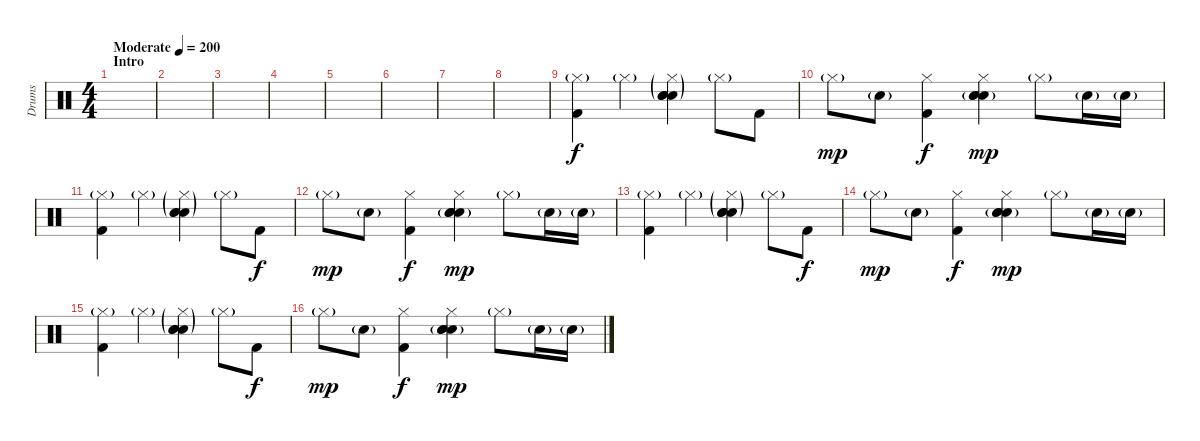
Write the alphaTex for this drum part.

\track ("Drums" "Drums") {instrument percussion}
\staff {score}
\articulation defaults
\ts (4 4)
\section ("" "Intro")
\tempo (200 "Moderate")
\clef neutral
\ks c
|
|
|
|
|
|
|
|
("Hi-Hat (closed)"{g} "Kick (hit) 2").4 "Hi-Hat (closed)"{g}.4 ("Hi-Hat (closed)"{g} "Snare (hit) 2"{g} "Hand Clap (hit)"{g} "Electric Snare (hit)").4 "Hi-Hat (closed)"{g}.8 "Kick (hit) 2".8{dy f} |
"Hi-Hat (closed)"{g}.8{dy mp} "Electric Snare (hit)"{g}.8 ("Hi-Hat (closed)" "Kick (hit) 2").4{dy f} ("Hi-Hat (closed)" "Snare (hit) 2"{g} "Hand Clap (hit)"{g} "Electric Snare (hit)").4{dy mp} "Hi-Hat (closed)"{g}.8 "Electric Snare (hit)"{g}.16 "Electric Snare (hit)"{g}.16 |
("Hi-Hat (closed)"{g} "Kick (hit) 2").4 "Hi-Hat (closed)"{g}.4 ("Hi-Hat (closed)"{g} "Snare (hit) 2"{g} "Hand Clap (hit)"{g} "Electric Snare (hit)").4 "Hi-Hat (closed)"{g}.8 "Kick (hit) 2".8{dy f} |
"Hi-Hat (closed)"{g}.8{dy mp} "Electric Snare (hit)"{g}.8 ("Hi-Hat (closed)" "Kick (hit) 2").4{dy f} ("Hi-Hat (closed)" "Snare (hit) 2"{g} "Hand Clap (hit)"{g} "Electric Snare (hit)").4{dy mp} "Hi-Hat (closed)"{g}.8 "Electric Snare (hit)"{g}.16 "Electric Snare (hit)"{g}.16 |
("Hi-Hat (closed)"{g} "Kick (hit) 2").4 "Hi-Hat (closed)"{g}.4 ("Hi-Hat (closed)"{g} "Snare (hit) 2"{g} "Hand Clap (hit)"{g} "Electric Snare (hit)").4 "Hi-Hat (closed)"{g}.8 "Kick (hit) 2".8{dy f} |
"Hi-Hat (closed)"{g}.8{dy mp} "Electric Snare (hit)"{g}.8 ("Hi-Hat (closed)" "Kick (hit) 2").4{dy f} ("Hi-Hat (closed)" "Snare (hit) 2"{g} "Hand Clap (hit)"{g} "Electric Snare (hit)").4{dy mp} "Hi-Hat (closed)"{g}.8 "Electric Snare (hit)"{g}.16 "Electric Snare (hit)"{g}.16 |
("Hi-Hat (closed)"{g} "Kick (hit) 2").4 "Hi-Hat (closed)"{g}.4 ("Hi-Hat (closed)"{g} "Snare (hit) 2"{g} "Hand Clap (hit)"{g} "Electric Snare (hit)").4 "Hi-Hat (closed)"{g}.8 "Kick (hit) 2".8{dy f} |
"Hi-Hat (closed)"{g}.8{dy mp} "Electric Snare (hit)"{g}.8 ("Hi-Hat (closed)" "Kick (hit) 2").4{dy f} ("Hi-Hat (closed)" "Snare (hit) 2"{g} "Hand Clap (hit)"{g} "Electric Snare (hit)").4{dy mp} "Hi-Hat (closed)"{g}.8 "Electric Snare (hit)"{g}.16 "Electric Snare (hit)"{g}.16
